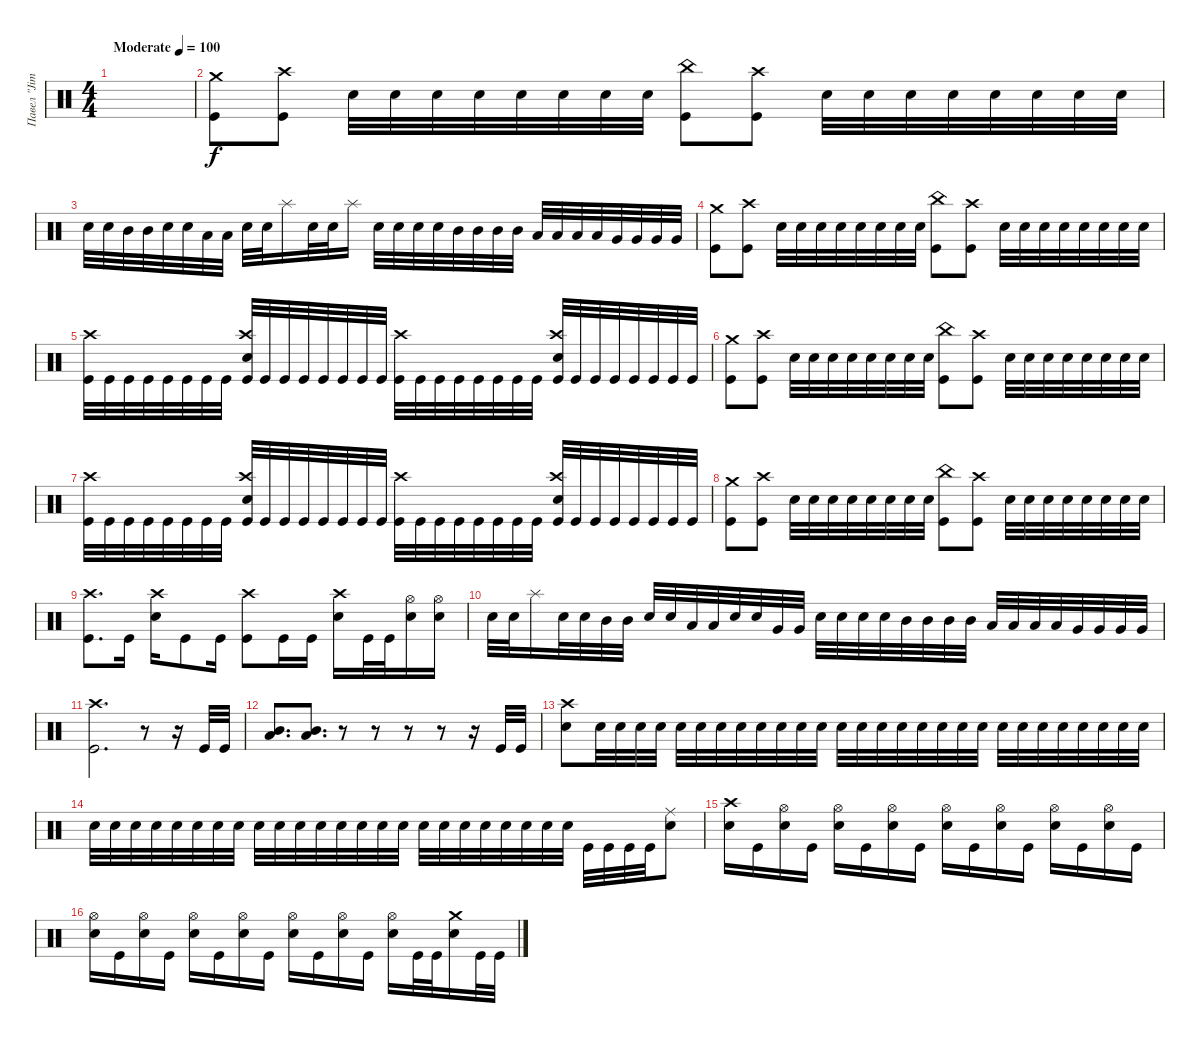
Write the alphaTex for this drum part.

\track ("Павел \"Jim\" Лохнин" "Павел \"Jim") {instrument percussion}
\staff {score}
\articulation defaults
\ts (4 4)
\tempo (100 "Moderate")
\clef neutral
\ks c
|
("Kick (hit)" "Crash medium (hit)").8 ("Kick (hit)" "Crash high (hit)").8 "Electric Snare (hit)".32 "Electric Snare (hit)".32 "Electric Snare (hit)".32 "Electric Snare (hit)".32 "Electric Snare (hit)".32 "Electric Snare (hit)".32 "Electric Snare (hit)".32 "Electric Snare (hit)".32 ("Kick (hit)" "China (hit)").8 ("Kick (hit)" "Crash high (hit)").8 "Electric Snare (hit)".32 "Electric Snare (hit)".32 "Electric Snare (hit)".32 "Electric Snare (hit)".32 "Electric Snare (hit)".32 "Electric Snare (hit)".32 "Electric Snare (hit)".32 "Electric Snare (hit)".32 |
"Electric Snare (hit)".32 "Electric Snare (hit)".32 "Mid Tom (hit)".32 "Mid Tom (hit)".32 "Electric Snare (hit)".32 "Electric Snare (hit)".32 "Low Tom (hit)".32 "Low Tom (hit)".32 "Electric Snare (hit)".32 "Electric Snare (hit)".32 "Splash (hit)".16 "Electric Snare (hit)".32 "Electric Snare (hit)".32 "Splash (hit)".16 "Electric Snare (hit)".32 "Electric Snare (hit)".32 "Electric Snare (hit)".32 "Electric Snare (hit)".32 "Mid Tom (hit)".32 "Mid Tom (hit)".32 "Mid Tom (hit)".32 "Mid Tom (hit)".32 "Low Tom (hit)".32 "Low Tom (hit)".32 "Low Tom (hit)".32 "Low Tom (hit)".32 "Very Low Tom (hit)".32 "Very Low Tom (hit)".32 "Very Low Tom (hit)".32 "Very Low Tom (hit)".32 |
("Kick (hit)" "Crash medium (hit)").8 ("Kick (hit)" "Crash high (hit)").8 "Electric Snare (hit)".32 "Electric Snare (hit)".32 "Electric Snare (hit)".32 "Electric Snare (hit)".32 "Electric Snare (hit)".32 "Electric Snare (hit)".32 "Electric Snare (hit)".32 "Electric Snare (hit)".32 ("Kick (hit)" "China (hit)").8 ("Kick (hit)" "Crash high (hit)").8 "Electric Snare (hit)".32 "Electric Snare (hit)".32 "Electric Snare (hit)".32 "Electric Snare (hit)".32 "Electric Snare (hit)".32 "Electric Snare (hit)".32 "Electric Snare (hit)".32 "Electric Snare (hit)".32 |
("Kick (hit)" "Crash high (hit)").32 "Kick (hit)".32 "Kick (hit)".32 "Kick (hit)".32 "Kick (hit)".32 "Kick (hit)".32 "Kick (hit)".32 "Kick (hit)".32 ("Kick (hit)" "Electric Snare (hit)" "Crash high (hit)").32 "Kick (hit)".32 "Kick (hit)".32 "Kick (hit)".32 "Kick (hit)".32 "Kick (hit)".32 "Kick (hit)".32 "Kick (hit)".32 ("Kick (hit)" "Crash high (hit)").32 "Kick (hit)".32 "Kick (hit)".32 "Kick (hit)".32 "Kick (hit)".32 "Kick (hit)".32 "Kick (hit)".32 "Kick (hit)".32 ("Kick (hit)" "Electric Snare (hit)" "Crash high (hit)").32 "Kick (hit)".32 "Kick (hit)".32 "Kick (hit)".32 "Kick (hit)".32 "Kick (hit)".32 "Kick (hit)".32 "Kick (hit)".32 |
("Kick (hit)" "Crash medium (hit)").8 ("Kick (hit)" "Crash high (hit)").8 "Electric Snare (hit)".32 "Electric Snare (hit)".32 "Electric Snare (hit)".32 "Electric Snare (hit)".32 "Electric Snare (hit)".32 "Electric Snare (hit)".32 "Electric Snare (hit)".32 "Electric Snare (hit)".32 ("Kick (hit)" "China (hit)").8 ("Kick (hit)" "Crash high (hit)").8 "Electric Snare (hit)".32 "Electric Snare (hit)".32 "Electric Snare (hit)".32 "Electric Snare (hit)".32 "Electric Snare (hit)".32 "Electric Snare (hit)".32 "Electric Snare (hit)".32 "Electric Snare (hit)".32 |
("Kick (hit)" "Crash high (hit)").32 "Kick (hit)".32 "Kick (hit)".32 "Kick (hit)".32 "Kick (hit)".32 "Kick (hit)".32 "Kick (hit)".32 "Kick (hit)".32 ("Kick (hit)" "Electric Snare (hit)" "Crash high (hit)").32 "Kick (hit)".32 "Kick (hit)".32 "Kick (hit)".32 "Kick (hit)".32 "Kick (hit)".32 "Kick (hit)".32 "Kick (hit)".32 ("Kick (hit)" "Crash high (hit)").32 "Kick (hit)".32 "Kick (hit)".32 "Kick (hit)".32 "Kick (hit)".32 "Kick (hit)".32 "Kick (hit)".32 "Kick (hit)".32 ("Kick (hit)" "Electric Snare (hit)" "Crash high (hit)").32 "Kick (hit)".32 "Kick (hit)".32 "Kick (hit)".32 "Kick (hit)".32 "Kick (hit)".32 "Kick (hit)".32 "Kick (hit)".32 |
("Kick (hit)" "Crash medium (hit)").8 ("Kick (hit)" "Crash high (hit)").8 "Electric Snare (hit)".32 "Electric Snare (hit)".32 "Electric Snare (hit)".32 "Electric Snare (hit)".32 "Electric Snare (hit)".32 "Electric Snare (hit)".32 "Electric Snare (hit)".32 "Electric Snare (hit)".32 ("Kick (hit)" "China (hit)").8 ("Kick (hit)" "Crash high (hit)").8 "Electric Snare (hit)".32 "Electric Snare (hit)".32 "Electric Snare (hit)".32 "Electric Snare (hit)".32 "Electric Snare (hit)".32 "Electric Snare (hit)".32 "Electric Snare (hit)".32 "Electric Snare (hit)".32 |
("Kick (hit)" "Crash high (hit)").8{d} "Kick (hit)".16 ("Electric Snare (hit)" "Crash high (hit)").16 "Kick (hit)".8 "Kick (hit)".16 ("Kick (hit)" "Crash high (hit)").8 "Kick (hit)".16 "Kick (hit)".16 ("Electric Snare (hit)" "Crash high (hit)").16 "Kick (hit)".32 "Kick (hit)".32 ("Electric Snare (hit)" "Hi-Hat (open)").16 ("Electric Snare (hit)" "Hi-Hat (open)").16 |
"Electric Snare (hit)".32 "Electric Snare (hit)".32 "Splash (hit)".16 "Electric Snare (hit)".32 "Electric Snare (hit)".32 "Mid Tom (hit)".32 "Mid Tom (hit)".32 "Electric Snare (hit)".32 "Electric Snare (hit)".32 "Low Tom (hit)".32 "Low Tom (hit)".32 "Electric Snare (hit)".32 "Electric Snare (hit)".32 "Very Low Tom (hit)".32 "Very Low Tom (hit)".32 "Electric Snare (hit)".32 "Electric Snare (hit)".32 "Electric Snare (hit)".32 "Electric Snare (hit)".32 "Mid Tom (hit)".32 "Mid Tom (hit)".32 "Mid Tom (hit)".32 "Mid Tom (hit)".32 "Low Tom (hit)".32 "Low Tom (hit)".32 "Low Tom (hit)".32 "Low Tom (hit)".32 "Very Low Tom (hit)".32 "Very Low Tom (hit)".32 "Very Low Tom (hit)".32 "Very Low Tom (hit)".32 |
("Kick (hit)" "Crash high (hit)").2{d} r.8 r.16 "Kick (hit)".32 "Kick (hit)".32 |
("Low Tom (hit)" "Mid Tom (hit)").8{d} ("Low Tom (hit)" "Mid Tom (hit)").8{d} r.8 r.8 r.8 r.8 r.16 "Kick (hit)".32 "Kick (hit)".32 |
("Electric Snare (hit)" "Crash high (hit)").8 "Electric Snare (hit)".32 "Electric Snare (hit)".32 "Electric Snare (hit)".32 "Electric Snare (hit)".32 "Electric Snare (hit)".32 "Electric Snare (hit)".32 "Electric Snare (hit)".32 "Electric Snare (hit)".32 "Electric Snare (hit)".32 "Electric Snare (hit)".32 "Electric Snare (hit)".32 "Electric Snare (hit)".32 "Electric Snare (hit)".32 "Electric Snare (hit)".32 "Electric Snare (hit)".32 "Electric Snare (hit)".32 "Electric Snare (hit)".32 "Electric Snare (hit)".32 "Electric Snare (hit)".32 "Electric Snare (hit)".32 "Electric Snare (hit)".32 "Electric Snare (hit)".32 "Electric Snare (hit)".32 "Electric Snare (hit)".32 "Electric Snare (hit)".32 "Electric Snare (hit)".32 "Electric Snare (hit)".32 "Electric Snare (hit)".32 |
"Electric Snare (hit)".32 "Electric Snare (hit)".32 "Electric Snare (hit)".32 "Electric Snare (hit)".32 "Electric Snare (hit)".32 "Electric Snare (hit)".32 "Electric Snare (hit)".32 "Electric Snare (hit)".32 "Electric Snare (hit)".32 "Electric Snare (hit)".32 "Electric Snare (hit)".32 "Electric Snare (hit)".32 "Electric Snare (hit)".32 "Electric Snare (hit)".32 "Electric Snare (hit)".32 "Electric Snare (hit)".32 "Electric Snare (hit)".32 "Electric Snare (hit)".32 "Electric Snare (hit)".32 "Electric Snare (hit)".32 "Electric Snare (hit)".32 "Electric Snare (hit)".32 "Electric Snare (hit)".32 "Electric Snare (hit)".32 "Kick (hit)".32 "Kick (hit)".32 "Kick (hit)".32 "Kick (hit)".32 ("Electric Snare (hit)" "Ride (middle)").8 |
("Electric Snare (hit)" "Crash high (hit)").16 "Kick (hit)".16 ("Electric Snare (hit)" "Hi-Hat (open)").16 "Kick (hit)".16 ("Electric Snare (hit)" "Hi-Hat (open)").16 "Kick (hit)".16 ("Electric Snare (hit)" "Hi-Hat (open)").16 "Kick (hit)".16 ("Electric Snare (hit)" "Hi-Hat (open)").16 "Kick (hit)".16 ("Electric Snare (hit)" "Hi-Hat (open)").16 "Kick (hit)".16 ("Electric Snare (hit)" "Hi-Hat (open)").16 "Kick (hit)".16 ("Electric Snare (hit)" "Hi-Hat (open)").16 "Kick (hit)".16 |
("Electric Snare (hit)" "Hi-Hat (open)").16 "Kick (hit)".16 ("Electric Snare (hit)" "Hi-Hat (open)").16 "Kick (hit)".16 ("Electric Snare (hit)" "Hi-Hat (open)").16 "Kick (hit)".16 ("Electric Snare (hit)" "Hi-Hat (open)").16 "Kick (hit)".16 ("Electric Snare (hit)" "Hi-Hat (open)").16 "Kick (hit)".16 ("Electric Snare (hit)" "Hi-Hat (open)").16 "Kick (hit)".16 ("Electric Snare (hit)" "Hi-Hat (open)").16 "Kick (hit)".32 "Kick (hit)".32 ("Electric Snare (hit)" "Crash medium (hit)").16 "Kick (hit)".32 "Kick (hit)".32
